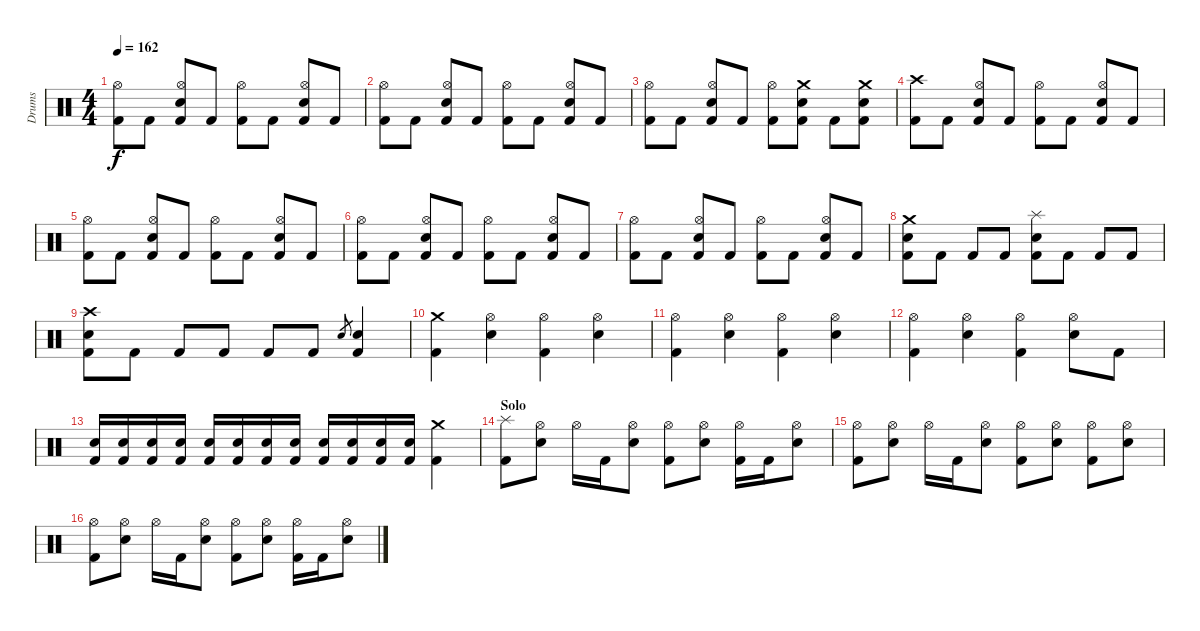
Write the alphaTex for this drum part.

\track ("Drums" "Drums") {instrument percussion}
\staff {score}
\articulation defaults
\ts (4 4)
\tempo 162
\clef neutral
\ks c
("Kick (hit) 2" "Hi-Hat (open)").8{dy f} "Kick (hit) 2".8 ("Kick (hit) 2" "Electric Snare (hit)" "Hi-Hat (open)").8 "Kick (hit) 2".8 ("Kick (hit) 2" "Hi-Hat (open)").8 "Kick (hit) 2".8 ("Kick (hit) 2" "Electric Snare (hit)" "Hi-Hat (open)").8 "Kick (hit) 2".8 |
("Kick (hit) 2" "Hi-Hat (open)").8 "Kick (hit) 2".8 ("Kick (hit) 2" "Electric Snare (hit)" "Hi-Hat (open)").8 "Kick (hit) 2".8 ("Kick (hit) 2" "Hi-Hat (open)").8 "Kick (hit) 2".8 ("Kick (hit) 2" "Electric Snare (hit)" "Hi-Hat (open)").8 "Kick (hit) 2".8 |
("Kick (hit) 2" "Hi-Hat (open)").8 "Kick (hit) 2".8 ("Kick (hit) 2" "Electric Snare (hit)" "Hi-Hat (open)").8 "Kick (hit) 2".8 ("Kick (hit) 2" "Hi-Hat (open)").8 ("Kick (hit) 2" "Electric Snare (hit)" "Crash medium (hit)").8 "Kick (hit) 2".8 ("Kick (hit) 2" "Electric Snare (hit)" "Crash medium (hit)").8 |
("Kick (hit) 2" "Crash high (hit)").8 "Kick (hit) 2".8 ("Kick (hit) 2" "Electric Snare (hit)" "Hi-Hat (open)").8 "Kick (hit) 2".8 ("Kick (hit) 2" "Hi-Hat (open)").8 "Kick (hit) 2".8 ("Kick (hit) 2" "Electric Snare (hit)" "Hi-Hat (open)").8 "Kick (hit) 2".8 |
("Kick (hit) 2" "Hi-Hat (open)").8 "Kick (hit) 2".8 ("Kick (hit) 2" "Electric Snare (hit)" "Hi-Hat (open)").8 "Kick (hit) 2".8 ("Kick (hit) 2" "Hi-Hat (open)").8 "Kick (hit) 2".8 ("Kick (hit) 2" "Electric Snare (hit)" "Hi-Hat (open)").8 "Kick (hit) 2".8 |
("Kick (hit) 2" "Hi-Hat (open)").8 "Kick (hit) 2".8 ("Kick (hit) 2" "Electric Snare (hit)" "Hi-Hat (open)").8 "Kick (hit) 2".8 ("Kick (hit) 2" "Hi-Hat (open)").8 "Kick (hit) 2".8 ("Kick (hit) 2" "Electric Snare (hit)" "Hi-Hat (open)").8 "Kick (hit) 2".8 |
("Kick (hit) 2" "Hi-Hat (open)").8 "Kick (hit) 2".8 ("Kick (hit) 2" "Electric Snare (hit)" "Hi-Hat (open)").8 "Kick (hit) 2".8 ("Kick (hit) 2" "Hi-Hat (open)").8 "Kick (hit) 2".8 ("Kick (hit) 2" "Electric Snare (hit)" "Hi-Hat (open)").8 "Kick (hit) 2".8 |
("Kick (hit) 2" "Electric Snare (hit)" "Crash medium (hit)").8 "Kick (hit) 2".8 "Kick (hit) 2".8 "Kick (hit) 2".8 ("Kick (hit) 2" "Electric Snare (hit)" "Splash (hit)").8 "Kick (hit) 2".8 "Kick (hit) 2".8 "Kick (hit) 2".8 |
("Kick (hit) 2" "Electric Snare (hit)" "Crash high (hit)").8 "Kick (hit) 2".8 "Kick (hit) 2".8 "Kick (hit) 2".8 "Kick (hit) 2".8 "Kick (hit) 2".8 "Electric Snare (hit)".8{gr} ("Kick (hit) 2" "Electric Snare (hit)").4 |
\section ("" "")
("Kick (hit) 2" "Crash medium (hit)").4 ("Electric Snare (hit)" "Hi-Hat (open)").4 ("Kick (hit) 2" "Hi-Hat (open)").4 ("Electric Snare (hit)" "Hi-Hat (open)").4 |
("Kick (hit) 2" "Hi-Hat (open)").4 ("Electric Snare (hit)" "Hi-Hat (open)").4 ("Kick (hit) 2" "Hi-Hat (open)").4 ("Electric Snare (hit)" "Hi-Hat (open)").4 |
("Kick (hit) 2" "Hi-Hat (open)").4 ("Electric Snare (hit)" "Hi-Hat (open)").4 ("Kick (hit) 2" "Hi-Hat (open)").4 ("Electric Snare (hit)" "Hi-Hat (open)").8 "Kick (hit) 2".8 |
("Kick (hit) 2" "Electric Snare (hit)").16 ("Kick (hit) 2" "Electric Snare (hit)").16 ("Kick (hit) 2" "Electric Snare (hit)").16 ("Kick (hit) 2" "Electric Snare (hit)").16 ("Kick (hit) 2" "Electric Snare (hit)").16 ("Kick (hit) 2" "Electric Snare (hit)").16 ("Kick (hit) 2" "Electric Snare (hit)").16 ("Kick (hit) 2" "Electric Snare (hit)").16 ("Kick (hit) 2" "Electric Snare (hit)").16 ("Kick (hit) 2" "Electric Snare (hit)").16 ("Kick (hit) 2" "Electric Snare (hit)").16 ("Kick (hit) 2" "Electric Snare (hit)").16 ("Kick (hit) 2" "Crash medium (hit)").4 |
\section ("" "Solo")
("Kick (hit) 2" "Splash (hit)").8 ("Electric Snare (hit)" "Hi-Hat (open)").8 "Hi-Hat (open)".16 "Kick (hit) 2".16 ("Electric Snare (hit)" "Hi-Hat (open)").8 ("Kick (hit) 2" "Hi-Hat (open)").8 ("Electric Snare (hit)" "Hi-Hat (open)").8 ("Kick (hit) 2" "Hi-Hat (open)").16 "Kick (hit) 2".16 ("Electric Snare (hit)" "Hi-Hat (open)").8 |
("Kick (hit) 2" "Hi-Hat (open)").8 ("Electric Snare (hit)" "Hi-Hat (open)").8 "Hi-Hat (open)".16 "Kick (hit) 2".16 ("Electric Snare (hit)" "Hi-Hat (open)").8 ("Kick (hit) 2" "Hi-Hat (open)").8 ("Electric Snare (hit)" "Hi-Hat (open)").8 ("Kick (hit) 2" "Hi-Hat (open)").8 ("Electric Snare (hit)" "Hi-Hat (open)").8 |
("Kick (hit) 2" "Hi-Hat (open)").8 ("Electric Snare (hit)" "Hi-Hat (open)").8 "Hi-Hat (open)".16 "Kick (hit) 2".16 ("Electric Snare (hit)" "Hi-Hat (open)").8 ("Kick (hit) 2" "Hi-Hat (open)").8 ("Electric Snare (hit)" "Hi-Hat (open)").8 ("Kick (hit) 2" "Hi-Hat (open)").16 "Kick (hit) 2".16 ("Electric Snare (hit)" "Hi-Hat (open)").8
